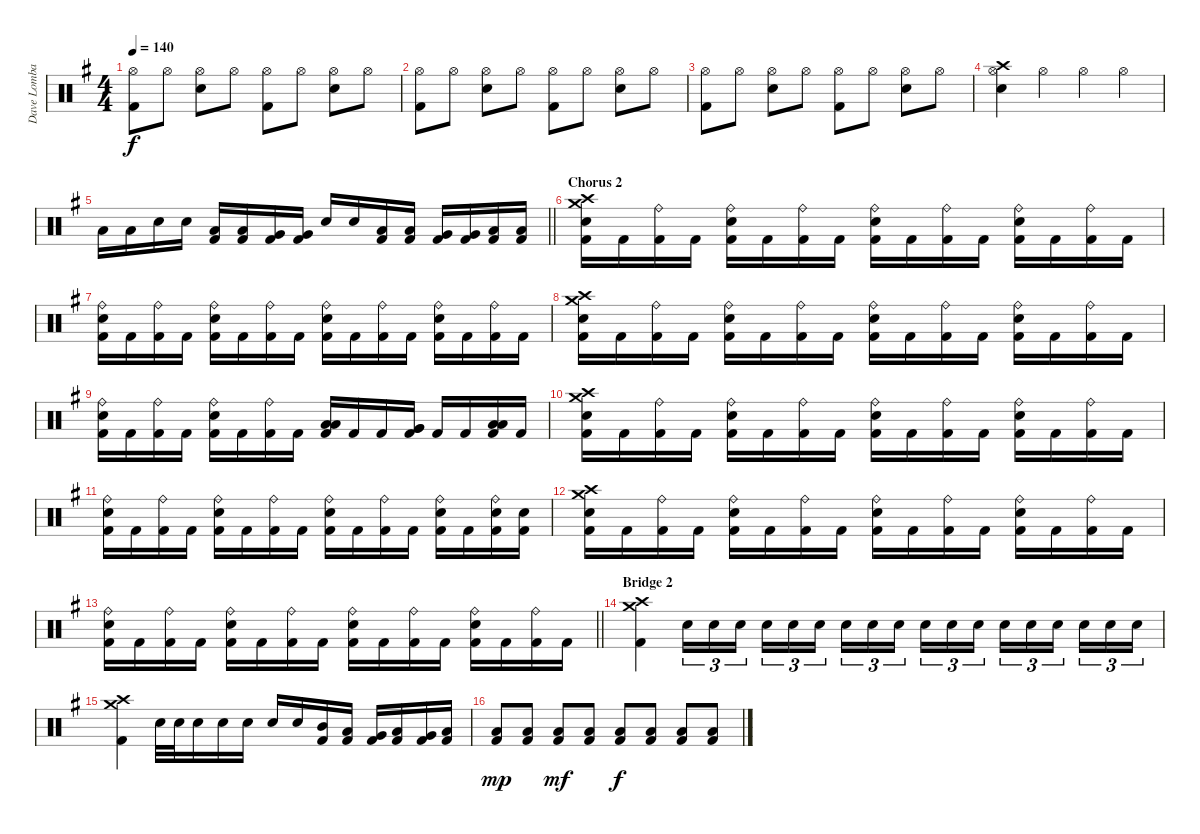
\track ("Dave Lombardo" "Dave Lomba") {instrument percussion}
\staff {score}
\articulation defaults
\ts (4 4)
\tempo 140
\clef neutral
\ks g
("Hi-Hat (open)" "Kick (hit) 2").8{dy f} "Hi-Hat (open)".8 ("Hi-Hat (open)" "Electric Snare (hit)").8 "Hi-Hat (open)".8 ("Hi-Hat (open)" "Kick (hit) 2").8 "Hi-Hat (open)".8 ("Hi-Hat (open)" "Electric Snare (hit)").8 "Hi-Hat (open)".8 |
("Hi-Hat (open)" "Kick (hit) 2").8 "Hi-Hat (open)".8 ("Hi-Hat (open)" "Electric Snare (hit)").8 "Hi-Hat (open)".8 ("Hi-Hat (open)" "Kick (hit) 2").8 "Hi-Hat (open)".8 ("Hi-Hat (open)" "Electric Snare (hit)").8 "Hi-Hat (open)".8 |
("Hi-Hat (open)" "Kick (hit) 2").8 "Hi-Hat (open)".8 ("Hi-Hat (open)" "Electric Snare (hit)").8 "Hi-Hat (open)".8 ("Hi-Hat (open)" "Kick (hit) 2").8 "Hi-Hat (open)".8 ("Hi-Hat (open)" "Electric Snare (hit)").8 "Hi-Hat (open)".8 |
("Crash high (hit)" "Hi-Hat (open)" "Electric Snare (hit)").4 "Hi-Hat (open)".4 "Hi-Hat (open)".4 "Hi-Hat (open)".4 |
\barLineRight lightlight "Low Floor Tom (hit)".16 "Low Floor Tom (hit)".16 "Electric Snare (hit)".16 "Electric Snare (hit)".16
("Low Tom (hit)" "Kick (hit) 2").16 ("Low Tom (hit)" "Kick (hit) 2").16 ("Very Low Tom (hit)" "Kick (hit) 2").16 ("Very Low Tom (hit)" "Kick (hit) 2").16 "Electric Snare (hit)".16 "Electric Snare (hit)".16 ("Low Tom (hit)" "Kick (hit) 2").16 ("Low Tom (hit)" "Kick (hit) 2").16 ("Very Low Tom (hit)" "Kick (hit) 2").16 ("Very Low Tom (hit)" "Kick (hit) 2").16 ("Low Floor Tom (hit)" "Kick (hit) 2").16 ("Low Floor Tom (hit)" "Kick (hit) 2").16 |
\section ("" "Chorus 2")
("Crash high (hit)" "Crash medium (hit)" "Electric Snare (hit)" "Kick (hit) 2").16 "Kick (hit) 2".16 ("Ride (bell)" "Kick (hit) 2").16 "Kick (hit) 2".16 ("Ride (bell)" "Electric Snare (hit)" "Kick (hit) 2").16 "Kick (hit) 2".16 ("Ride (bell)" "Kick (hit) 2").16 "Kick (hit) 2".16 ("Ride (bell)" "Electric Snare (hit)" "Kick (hit) 2").16 "Kick (hit) 2".16 ("Ride (bell)" "Kick (hit) 2").16 "Kick (hit) 2".16 ("Ride (bell)" "Electric Snare (hit)" "Kick (hit) 2").16 "Kick (hit) 2".16 ("Ride (bell)" "Kick (hit) 2").16 "Kick (hit) 2".16 |
("Ride (bell)" "Electric Snare (hit)" "Kick (hit) 2").16 "Kick (hit) 2".16 ("Ride (bell)" "Kick (hit) 2").16 "Kick (hit) 2".16 ("Ride (bell)" "Electric Snare (hit)" "Kick (hit) 2").16 "Kick (hit) 2".16 ("Ride (bell)" "Kick (hit) 2").16 "Kick (hit) 2".16 ("Ride (bell)" "Electric Snare (hit)" "Kick (hit) 2").16 "Kick (hit) 2".16 ("Ride (bell)" "Kick (hit) 2").16 "Kick (hit) 2".16 ("Ride (bell)" "Electric Snare (hit)" "Kick (hit) 2").16 "Kick (hit) 2".16 ("Ride (bell)" "Kick (hit) 2").16 "Kick (hit) 2".16 |
("Crash high (hit)" "Crash medium (hit)" "Electric Snare (hit)" "Kick (hit) 2").16 "Kick (hit) 2".16 ("Ride (bell)" "Kick (hit) 2").16 "Kick (hit) 2".16 ("Ride (bell)" "Electric Snare (hit)" "Kick (hit) 2").16 "Kick (hit) 2".16 ("Ride (bell)" "Kick (hit) 2").16 "Kick (hit) 2".16 ("Ride (bell)" "Electric Snare (hit)" "Kick (hit) 2").16 "Kick (hit) 2".16 ("Ride (bell)" "Kick (hit) 2").16 "Kick (hit) 2".16 ("Ride (bell)" "Electric Snare (hit)" "Kick (hit) 2").16 "Kick (hit) 2".16 ("Ride (bell)" "Kick (hit) 2").16 "Kick (hit) 2".16 |
("Ride (bell)" "Electric Snare (hit)" "Kick (hit) 2").16 "Kick (hit) 2".16 ("Ride (bell)" "Kick (hit) 2").16 "Kick (hit) 2".16 ("Ride (bell)" "Electric Snare (hit)" "Kick (hit) 2").16 "Kick (hit) 2".16 ("Ride (bell)" "Kick (hit) 2").16 "Kick (hit) 2".16 ("Low Tom (hit)" "Low Tom (hit)" "Kick (hit) 2").16 "Kick (hit) 2".16 "Kick (hit) 2".16 ("Very Low Tom (hit)" "Very Low Tom (hit)" "Kick (hit) 2").16 "Kick (hit) 2".16 "Kick (hit) 2".16 ("Low Floor Tom (hit)" "Low Floor Tom (hit)" "Kick (hit) 2").16 "Kick (hit) 2".16 |
("Crash high (hit)" "Crash medium (hit)" "Electric Snare (hit)" "Kick (hit) 2").16 "Kick (hit) 2".16 ("Ride (bell)" "Kick (hit) 2").16 "Kick (hit) 2".16 ("Ride (bell)" "Electric Snare (hit)" "Kick (hit) 2").16 "Kick (hit) 2".16 ("Ride (bell)" "Kick (hit) 2").16 "Kick (hit) 2".16 ("Ride (bell)" "Electric Snare (hit)" "Kick (hit) 2").16 "Kick (hit) 2".16 ("Ride (bell)" "Kick (hit) 2").16 "Kick (hit) 2".16 ("Ride (bell)" "Electric Snare (hit)" "Kick (hit) 2").16 "Kick (hit) 2".16 ("Ride (bell)" "Kick (hit) 2").16 "Kick (hit) 2".16 |
("Ride (bell)" "Electric Snare (hit)" "Kick (hit) 2").16 "Kick (hit) 2".16 ("Ride (bell)" "Kick (hit) 2").16 "Kick (hit) 2".16 ("Ride (bell)" "Electric Snare (hit)" "Kick (hit) 2").16 "Kick (hit) 2".16 ("Ride (bell)" "Kick (hit) 2").16 "Kick (hit) 2".16 ("Ride (bell)" "Electric Snare (hit)" "Kick (hit) 2").16 "Kick (hit) 2".16 ("Ride (bell)" "Kick (hit) 2").16 "Kick (hit) 2".16 ("Ride (bell)" "Electric Snare (hit)" "Kick (hit) 2").16 "Kick (hit) 2".16 ("Ride (bell)" "Electric Snare (hit)" "Kick (hit) 2").16 ("Electric Snare (hit)" "Kick (hit) 2").16 |
("Crash high (hit)" "Crash medium (hit)" "Electric Snare (hit)" "Kick (hit) 2").16 "Kick (hit) 2".16 ("Ride (bell)" "Kick (hit) 2").16 "Kick (hit) 2".16 ("Ride (bell)" "Electric Snare (hit)" "Kick (hit) 2").16 "Kick (hit) 2".16 ("Ride (bell)" "Kick (hit) 2").16 "Kick (hit) 2".16 ("Ride (bell)" "Electric Snare (hit)" "Kick (hit) 2").16 "Kick (hit) 2".16 ("Ride (bell)" "Kick (hit) 2").16 "Kick (hit) 2".16 ("Ride (bell)" "Electric Snare (hit)" "Kick (hit) 2").16 "Kick (hit) 2".16 ("Ride (bell)" "Kick (hit) 2").16 "Kick (hit) 2".16 |
\barLineRight lightlight
("Ride (bell)" "Electric Snare (hit)" "Kick (hit) 2").16 "Kick (hit) 2".16 ("Ride (bell)" "Kick (hit) 2").16 "Kick (hit) 2".16 ("Ride (bell)" "Electric Snare (hit)" "Kick (hit) 2").16 "Kick (hit) 2".16 ("Ride (bell)" "Kick (hit) 2").16 "Kick (hit) 2".16 ("Ride (bell)" "Electric Snare (hit)" "Kick (hit) 2").16 "Kick (hit) 2".16 ("Ride (bell)" "Kick (hit) 2").16 "Kick (hit) 2".16 ("Ride (bell)" "Electric Snare (hit)" "Kick (hit) 2").16 "Kick (hit) 2".16 ("Ride (bell)" "Kick (hit) 2").16 "Kick (hit) 2".16 |
\section ("" "Bridge 2")
("Crash high (hit)" "Crash medium (hit)" "Kick (hit) 2").4 "Electric Snare (hit)".16{tu (3 2)} "Electric Snare (hit)".16{tu (3 2)} "Electric Snare (hit)".16{tu (3 2) beam splitsecondary} "Electric Snare (hit)".16{tu (3 2)} "Electric Snare (hit)".16{tu (3 2)} "Electric Snare (hit)".16{tu (3 2)} "Electric Snare (hit)".16{tu (3 2)} "Electric Snare (hit)".16{tu (3 2)} "Electric Snare (hit)".16{tu (3 2) beam splitsecondary} "Electric Snare (hit)".16{tu (3 2)} "Electric Snare (hit)".16{tu (3 2)} "Electric Snare (hit)".16{tu (3 2)} "Electric Snare (hit)".16{tu (3 2)} "Electric Snare (hit)".16{tu (3 2)} "Electric Snare (hit)".16{tu (3 2) beam splitsecondary} "Electric Snare (hit)".16{tu (3 2)} "Electric Snare (hit)".16{tu (3 2)} "Electric Snare (hit)".16{tu (3 2)} |
("Crash high (hit)" "Crash medium (hit)" "Kick (hit) 2").4 "Electric Snare (hit)".32 "Electric Snare (hit)".32 "Electric Snare (hit)".16 "Electric Snare (hit)".16 "Electric Snare (hit)".16 "Electric Snare (hit)".16 "Electric Snare (hit)".16 ("Mid Tom (hit)" "Kick (hit) 2").16 ("Low Tom (hit)" "Kick (hit) 2").16 ("Very Low Tom (hit)" "Kick (hit) 2").16 ("Low Tom (hit)" "Kick (hit) 2").16 ("Very Low Tom (hit)" "Kick (hit) 2").16 ("Low Floor Tom (hit)" "Kick (hit) 2").16 |
("Low Floor Tom (hit)" "Kick (hit) 2").8{dy mp} ("Low Floor Tom (hit)" "Kick (hit) 2").8 ("Low Floor Tom (hit)" "Kick (hit) 2").8{dy mf} ("Low Floor Tom (hit)" "Kick (hit) 2").8 ("Low Floor Tom (hit)" "Kick (hit) 2").8{dy f} ("Low Floor Tom (hit)" "Kick (hit) 2").8 ("Low Floor Tom (hit)" "Kick (hit) 2").8 ("Low Floor Tom (hit)" "Kick (hit) 2").8
